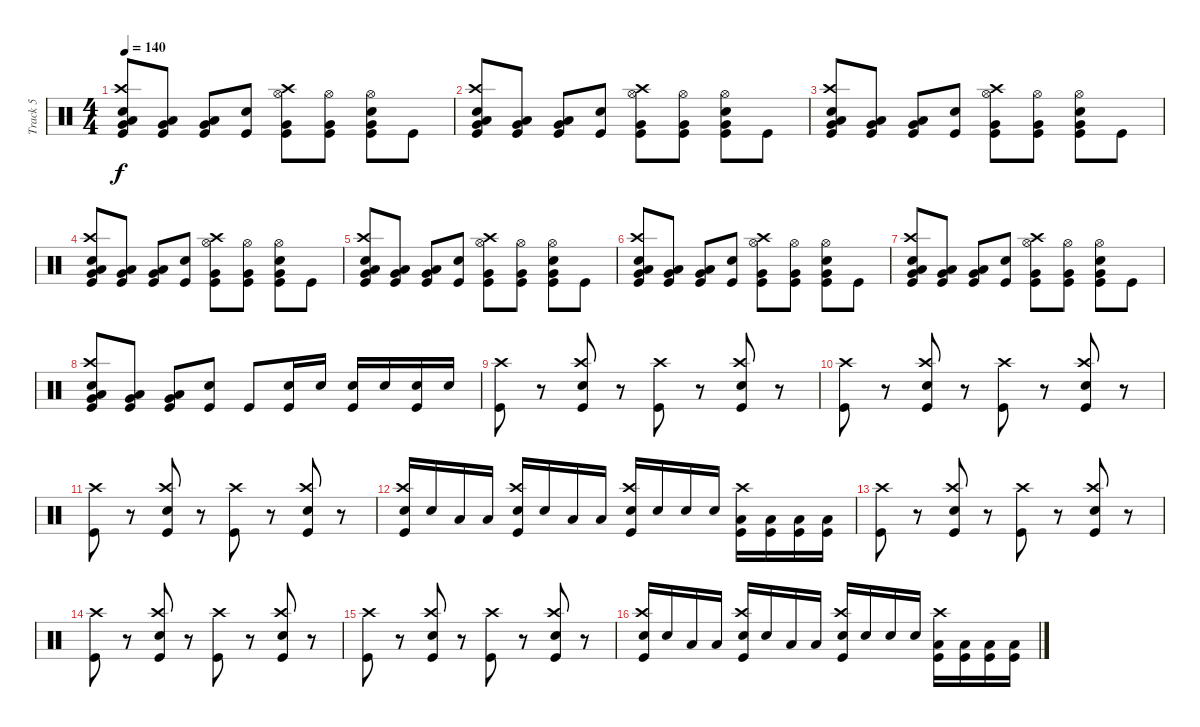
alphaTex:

\track ("Track 5" "Track 5") {instrument percussion}
\staff {score}
\articulation defaults
\ts (4 4)
\tempo 140
\clef neutral
\ks c
("Kick (hit)" "Low Tom (hit)" "Crash high (hit)" "Electric Snare (hit)" "Very Low Tom (hit)").8{dy f} ("Kick (hit)" "Low Tom (hit)" "Very Low Tom (hit)").8 ("Kick (hit)" "Low Tom (hit)" "Very Low Tom (hit)").8 ("Electric Snare (hit)" "Kick (hit)").8 ("Kick (hit)" "Crash high (hit)" "Very Low Tom (hit)" "Hi-Hat (open)").8 ("Kick (hit)" "Very Low Tom (hit)" "Hi-Hat (open)").8 ("Electric Snare (hit)" "Kick (hit)" "Very Low Tom (hit)" "Hi-Hat (open)").8 "Kick (hit)".8 |
("Kick (hit)" "Low Tom (hit)" "Crash high (hit)" "Electric Snare (hit)" "Very Low Tom (hit)").8 ("Kick (hit)" "Low Tom (hit)" "Very Low Tom (hit)").8 ("Kick (hit)" "Low Tom (hit)" "Very Low Tom (hit)").8 ("Electric Snare (hit)" "Kick (hit)").8 ("Kick (hit)" "Crash high (hit)" "Very Low Tom (hit)" "Hi-Hat (open)").8 ("Kick (hit)" "Very Low Tom (hit)" "Hi-Hat (open)").8 ("Electric Snare (hit)" "Kick (hit)" "Very Low Tom (hit)" "Hi-Hat (open)").8 "Kick (hit)".8 |
("Kick (hit)" "Low Tom (hit)" "Crash high (hit)" "Electric Snare (hit)" "Very Low Tom (hit)").8 ("Kick (hit)" "Low Tom (hit)" "Very Low Tom (hit)").8 ("Kick (hit)" "Low Tom (hit)" "Very Low Tom (hit)").8 ("Electric Snare (hit)" "Kick (hit)").8 ("Kick (hit)" "Crash high (hit)" "Very Low Tom (hit)" "Hi-Hat (open)").8 ("Kick (hit)" "Very Low Tom (hit)" "Hi-Hat (open)").8 ("Electric Snare (hit)" "Kick (hit)" "Very Low Tom (hit)" "Hi-Hat (open)").8 "Kick (hit)".8 |
("Kick (hit)" "Low Tom (hit)" "Crash high (hit)" "Electric Snare (hit)" "Very Low Tom (hit)").8 ("Kick (hit)" "Low Tom (hit)" "Very Low Tom (hit)").8 ("Kick (hit)" "Low Tom (hit)" "Very Low Tom (hit)").8 ("Electric Snare (hit)" "Kick (hit)").8 ("Kick (hit)" "Crash high (hit)" "Very Low Tom (hit)" "Hi-Hat (open)").8 ("Kick (hit)" "Very Low Tom (hit)" "Hi-Hat (open)").8 ("Electric Snare (hit)" "Kick (hit)" "Very Low Tom (hit)" "Hi-Hat (open)").8 "Kick (hit)".8 |
("Kick (hit)" "Low Tom (hit)" "Crash high (hit)" "Electric Snare (hit)" "Very Low Tom (hit)").8 ("Kick (hit)" "Low Tom (hit)" "Very Low Tom (hit)").8 ("Kick (hit)" "Low Tom (hit)" "Very Low Tom (hit)").8 ("Electric Snare (hit)" "Kick (hit)").8 ("Kick (hit)" "Crash high (hit)" "Very Low Tom (hit)" "Hi-Hat (open)").8 ("Kick (hit)" "Very Low Tom (hit)" "Hi-Hat (open)").8 ("Electric Snare (hit)" "Kick (hit)" "Very Low Tom (hit)" "Hi-Hat (open)").8 "Kick (hit)".8 |
("Kick (hit)" "Low Tom (hit)" "Crash high (hit)" "Electric Snare (hit)" "Very Low Tom (hit)").8 ("Kick (hit)" "Low Tom (hit)" "Very Low Tom (hit)").8 ("Kick (hit)" "Low Tom (hit)" "Very Low Tom (hit)").8 ("Electric Snare (hit)" "Kick (hit)").8 ("Kick (hit)" "Crash high (hit)" "Very Low Tom (hit)" "Hi-Hat (open)").8 ("Kick (hit)" "Very Low Tom (hit)" "Hi-Hat (open)").8 ("Electric Snare (hit)" "Kick (hit)" "Very Low Tom (hit)" "Hi-Hat (open)").8 "Kick (hit)".8 |
("Kick (hit)" "Low Tom (hit)" "Crash high (hit)" "Electric Snare (hit)" "Very Low Tom (hit)").8 ("Kick (hit)" "Low Tom (hit)" "Very Low Tom (hit)").8 ("Kick (hit)" "Low Tom (hit)" "Very Low Tom (hit)").8 ("Electric Snare (hit)" "Kick (hit)").8 ("Kick (hit)" "Crash high (hit)" "Very Low Tom (hit)" "Hi-Hat (open)").8 ("Kick (hit)" "Very Low Tom (hit)" "Hi-Hat (open)").8 ("Electric Snare (hit)" "Kick (hit)" "Very Low Tom (hit)" "Hi-Hat (open)").8 "Kick (hit)".8 |
("Kick (hit)" "Low Tom (hit)" "Crash high (hit)" "Electric Snare (hit)" "Very Low Tom (hit)").8 ("Kick (hit)" "Low Tom (hit)" "Very Low Tom (hit)").8 ("Kick (hit)" "Low Tom (hit)" "Very Low Tom (hit)").8 ("Electric Snare (hit)" "Kick (hit)").8 "Kick (hit)".8 ("Kick (hit)" "Electric Snare (hit)").16 "Electric Snare (hit)".16 ("Electric Snare (hit)" "Kick (hit)").16 "Electric Snare (hit)".16 ("Kick (hit)" "Electric Snare (hit)").16 "Electric Snare (hit)".16 |
("Kick (hit)" "Crash high (hit)").8 r.8 ("Electric Snare (hit)" "Kick (hit)" "Crash high (hit)").8 r.8 ("Kick (hit)" "Crash high (hit)").8 r.8 ("Electric Snare (hit)" "Kick (hit)" "Crash high (hit)").8 r.8 |
("Kick (hit)" "Crash high (hit)").8 r.8 ("Electric Snare (hit)" "Kick (hit)" "Crash high (hit)").8 r.8 ("Kick (hit)" "Crash high (hit)").8 r.8 ("Electric Snare (hit)" "Kick (hit)" "Crash high (hit)").8 r.8 |
("Kick (hit)" "Crash high (hit)").8 r.8 ("Electric Snare (hit)" "Kick (hit)" "Crash high (hit)").8 r.8 ("Kick (hit)" "Crash high (hit)").8 r.8 ("Electric Snare (hit)" "Kick (hit)" "Crash high (hit)").8 r.8 |
("Kick (hit)" "Crash high (hit)" "Electric Snare (hit)").16 "Electric Snare (hit)".16 "Low Tom (hit)".16 "Low Tom (hit)".16 ("Electric Snare (hit)" "Kick (hit)" "Crash high (hit)").16 "Electric Snare (hit)".16 "Low Tom (hit)".16 "Low Tom (hit)".16 ("Kick (hit)" "Crash high (hit)" "Electric Snare (hit)").16 "Electric Snare (hit)".16 "Electric Snare (hit)".16 "Electric Snare (hit)".16 ("Low Tom (hit)" "Kick (hit)" "Crash high (hit)").16 ("Low Tom (hit)" "Kick (hit)").16 ("Low Tom (hit)" "Kick (hit)").16 ("Low Tom (hit)" "Kick (hit)").16 |
("Kick (hit)" "Crash high (hit)").8 r.8 ("Electric Snare (hit)" "Kick (hit)" "Crash high (hit)").8 r.8 ("Kick (hit)" "Crash high (hit)").8 r.8 ("Electric Snare (hit)" "Kick (hit)" "Crash high (hit)").8 r.8 |
("Kick (hit)" "Crash high (hit)").8 r.8 ("Electric Snare (hit)" "Kick (hit)" "Crash high (hit)").8 r.8 ("Kick (hit)" "Crash high (hit)").8 r.8 ("Electric Snare (hit)" "Kick (hit)" "Crash high (hit)").8 r.8 |
("Kick (hit)" "Crash high (hit)").8 r.8 ("Electric Snare (hit)" "Kick (hit)" "Crash high (hit)").8 r.8 ("Kick (hit)" "Crash high (hit)").8 r.8 ("Electric Snare (hit)" "Kick (hit)" "Crash high (hit)").8 r.8 |
("Kick (hit)" "Crash high (hit)" "Electric Snare (hit)").16 "Electric Snare (hit)".16 "Low Tom (hit)".16 "Low Tom (hit)".16 ("Electric Snare (hit)" "Kick (hit)" "Crash high (hit)").16 "Electric Snare (hit)".16 "Low Tom (hit)".16 "Low Tom (hit)".16 ("Kick (hit)" "Crash high (hit)" "Electric Snare (hit)").16 "Electric Snare (hit)".16 "Electric Snare (hit)".16 "Electric Snare (hit)".16 ("Low Tom (hit)" "Kick (hit)" "Crash high (hit)").16 ("Low Tom (hit)" "Kick (hit)").16 ("Low Tom (hit)" "Kick (hit)").16 ("Low Tom (hit)" "Kick (hit)").16
